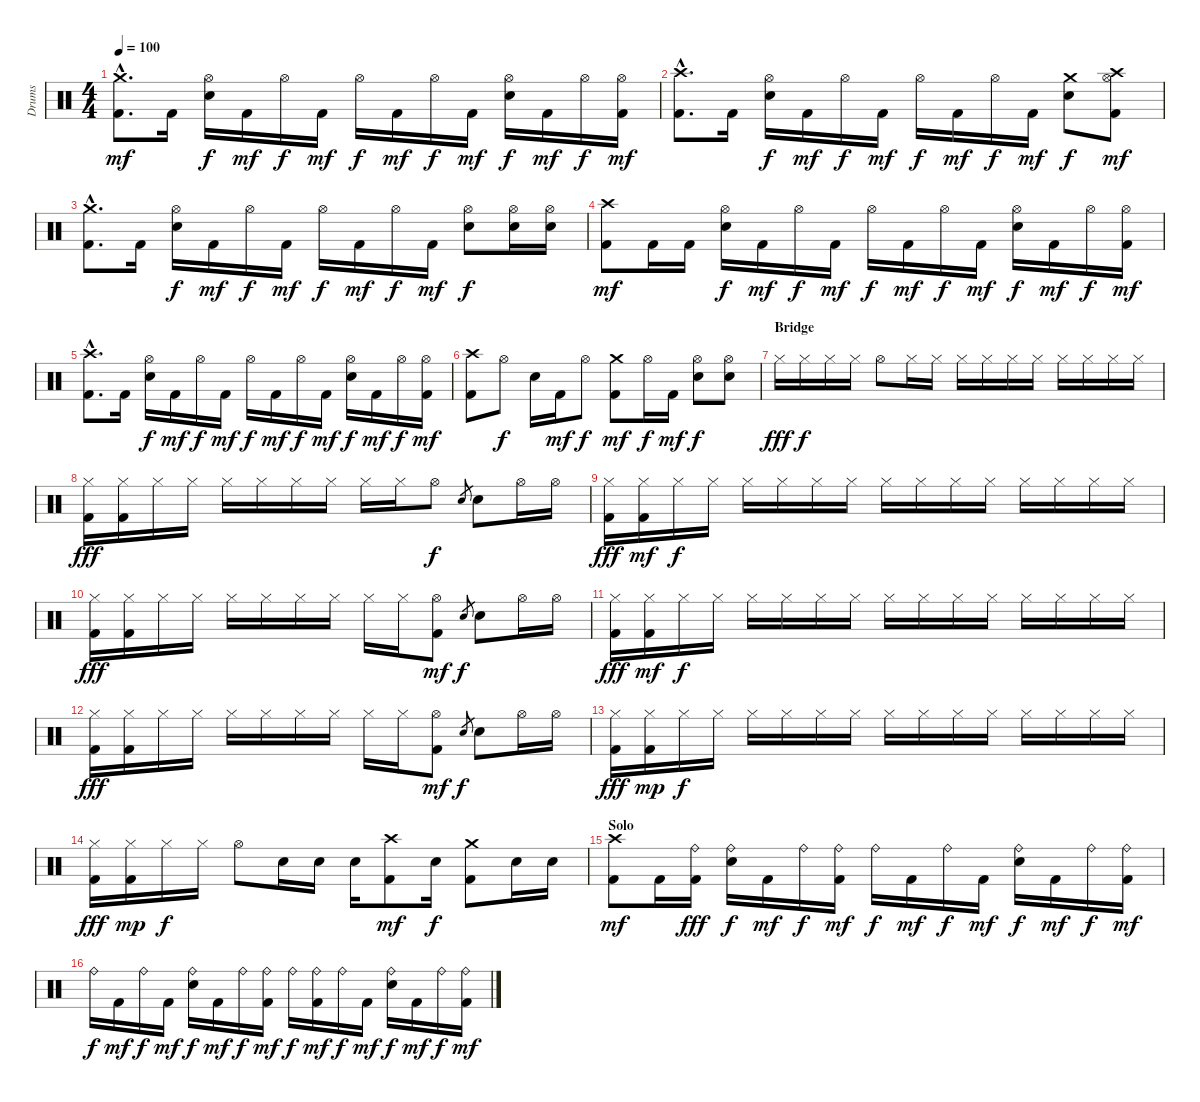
\track ("Drums" "Drums") {instrument percussion}
\staff {score}
\articulation defaults
\ts (4 4)
\tempo 100
\clef neutral
\ks c
("Kick (hit) 2"{hac} "Crash medium (hit)"{hac}).8{d dy mf} "Kick (hit) 2".16 ("Snare (hit) 2" "Hi-Hat (open)").16{dy f} "Kick (hit) 2".16{dy mf} "Hi-Hat (open)".16{dy f} "Kick (hit) 2".16{dy mf} "Hi-Hat (open)".16{dy f} "Kick (hit) 2".16{dy mf} "Hi-Hat (open)".16{dy f} "Kick (hit) 2".16{dy mf} ("Snare (hit) 2" "Hi-Hat (open)").16{dy f} "Kick (hit) 2".16{dy mf} "Hi-Hat (open)".16{dy f} ("Kick (hit) 2" "Hi-Hat (open)").16{dy mf} |
("Kick (hit) 2"{hac} "Crash high (hit)"{hac}).8{d} "Kick (hit) 2".16 ("Snare (hit) 2" "Hi-Hat (open)").16{dy f} "Kick (hit) 2".16{dy mf} "Hi-Hat (open)".16{dy f} "Kick (hit) 2".16{dy mf} "Hi-Hat (open)".16{dy f} "Kick (hit) 2".16{dy mf} "Hi-Hat (open)".16{dy f} "Kick (hit) 2".16{dy mf} ("Snare (hit) 2" "Crash medium (hit)").8{dy f} ("Kick (hit) 2" "Hi-Hat (open)" "Crash high (hit)").8{dy mf} |
("Kick (hit) 2"{hac} "Crash medium (hit)"{hac}).8{d} "Kick (hit) 2".16 ("Snare (hit) 2" "Hi-Hat (open)").16{dy f} "Kick (hit) 2".16{dy mf} "Hi-Hat (open)".16{dy f} "Kick (hit) 2".16{dy mf} "Hi-Hat (open)".16{dy f} "Kick (hit) 2".16{dy mf} "Hi-Hat (open)".16{dy f} "Kick (hit) 2".16{dy mf} ("Snare (hit) 2" "Hi-Hat (open)").8{dy f} ("Snare (hit) 2" "Hi-Hat (open)").16 ("Snare (hit) 2" "Hi-Hat (open)").16 |
("Kick (hit) 2" "Crash high (hit)").8{dy mf} "Kick (hit) 2".16 "Kick (hit) 2".16 ("Snare (hit) 2" "Hi-Hat (open)").16{dy f} "Kick (hit) 2".16{dy mf} "Hi-Hat (open)".16{dy f} "Kick (hit) 2".16{dy mf} "Hi-Hat (open)".16{dy f} "Kick (hit) 2".16{dy mf} "Hi-Hat (open)".16{dy f} "Kick (hit) 2".16{dy mf} ("Snare (hit) 2" "Hi-Hat (open)").16{dy f} "Kick (hit) 2".16{dy mf} "Hi-Hat (open)".16{dy f} ("Kick (hit) 2" "Hi-Hat (open)").16{dy mf} |
("Kick (hit) 2"{hac} "Crash high (hit)"{hac}).8{d} "Kick (hit) 2".16 ("Snare (hit) 2" "Hi-Hat (open)").16{dy f} "Kick (hit) 2".16{dy mf} "Hi-Hat (open)".16{dy f} "Kick (hit) 2".16{dy mf} "Hi-Hat (open)".16{dy f} "Kick (hit) 2".16{dy mf} "Hi-Hat (open)".16{dy f} "Kick (hit) 2".16{dy mf} ("Snare (hit) 2" "Hi-Hat (open)").16{dy f} "Kick (hit) 2".16{dy mf} "Hi-Hat (open)".16{dy f} ("Kick (hit) 2" "Hi-Hat (open)").16{dy mf} |
("Kick (hit) 2" "Crash high (hit)").8 "Hi-Hat (open)".8{dy f} "Snare (hit) 2".16 "Kick (hit) 2".16{dy mf} "Hi-Hat (open)".8{dy f} ("Kick (hit) 2" "Crash medium (hit)").8{dy mf} "Hi-Hat (open)".16{dy f} "Kick (hit) 2".16{dy mf} ("Snare (hit) 2" "Hi-Hat (open)").8{dy f} ("Snare (hit) 2" "Hi-Hat (open)").8 |
\section ("" "Bridge")
"Hi-Hat (closed)".16{dy fff} "Hi-Hat (closed)".16{dy f} "Hi-Hat (closed)".16 "Hi-Hat (closed)".16 "Hi-Hat (open)".8 "Hi-Hat (closed)".16 "Hi-Hat (closed)".16 "Hi-Hat (closed)".16 "Hi-Hat (closed)".16 "Hi-Hat (closed)".16 "Hi-Hat (closed)".16 "Hi-Hat (closed)".16 "Hi-Hat (closed)".16 "Hi-Hat (closed)".16 "Hi-Hat (closed)".16 |
("Kick (hit) 2" "Hi-Hat (closed)").16{dy fff} ("Kick (hit) 2" "Hi-Hat (closed)").16 "Hi-Hat (closed)".16 "Hi-Hat (closed)".16 "Hi-Hat (closed)".16 "Hi-Hat (closed)".16 "Hi-Hat (closed)".16 "Hi-Hat (closed)".16 "Hi-Hat (closed)".16 "Hi-Hat (closed)".16 "Hi-Hat (open)".8{dy f} "Snare (hit) 2".8{gr} "Snare (hit) 2".8 "Hi-Hat (open)".16 "Hi-Hat (open)".16 |
("Kick (hit) 2" "Hi-Hat (closed)").16{dy fff} ("Kick (hit) 2" "Hi-Hat (closed)").16{dy mf} "Hi-Hat (closed)".16{dy f} "Hi-Hat (closed)".16 "Hi-Hat (closed)".16 "Hi-Hat (closed)".16 "Hi-Hat (closed)".16 "Hi-Hat (closed)".16 "Hi-Hat (closed)".16 "Hi-Hat (closed)".16 "Hi-Hat (closed)".16 "Hi-Hat (closed)".16 "Hi-Hat (closed)".16 "Hi-Hat (closed)".16 "Hi-Hat (closed)".16 "Hi-Hat (closed)".16 |
("Kick (hit) 2" "Hi-Hat (closed)").16{dy fff} ("Kick (hit) 2" "Hi-Hat (closed)").16 "Hi-Hat (closed)".16 "Hi-Hat (closed)".16 "Hi-Hat (closed)".16 "Hi-Hat (closed)".16 "Hi-Hat (closed)".16 "Hi-Hat (closed)".16 "Hi-Hat (closed)".16 "Hi-Hat (closed)".16 ("Kick (hit) 2" "Hi-Hat (open)").8{dy mf} "Snare (hit) 2".8{gr dy f} "Snare (hit) 2".8 "Hi-Hat (open)".16 "Hi-Hat (open)".16 |
("Kick (hit) 2" "Hi-Hat (closed)").16{dy fff} ("Kick (hit) 2" "Hi-Hat (closed)").16{dy mf} "Hi-Hat (closed)".16{dy f} "Hi-Hat (closed)".16 "Hi-Hat (closed)".16 "Hi-Hat (closed)".16 "Hi-Hat (closed)".16 "Hi-Hat (closed)".16 "Hi-Hat (closed)".16 "Hi-Hat (closed)".16 "Hi-Hat (closed)".16 "Hi-Hat (closed)".16 "Hi-Hat (closed)".16 "Hi-Hat (closed)".16 "Hi-Hat (closed)".16 "Hi-Hat (closed)".16 |
("Kick (hit) 2" "Hi-Hat (closed)").16{dy fff} ("Kick (hit) 2" "Hi-Hat (closed)").16 "Hi-Hat (closed)".16 "Hi-Hat (closed)".16 "Hi-Hat (closed)".16 "Hi-Hat (closed)".16 "Hi-Hat (closed)".16 "Hi-Hat (closed)".16 "Hi-Hat (closed)".16 "Hi-Hat (closed)".16 ("Kick (hit) 2" "Hi-Hat (open)").8{dy mf} "Snare (hit) 2".8{gr dy f} "Snare (hit) 2".8 "Hi-Hat (open)".16 "Hi-Hat (open)".16 |
("Kick (hit) 2" "Hi-Hat (closed)").16{dy fff} ("Kick (hit) 2" "Hi-Hat (closed)").16{dy mp} "Hi-Hat (closed)".16{dy f} "Hi-Hat (closed)".16 "Hi-Hat (closed)".16 "Hi-Hat (closed)".16 "Hi-Hat (closed)".16 "Hi-Hat (closed)".16 "Hi-Hat (closed)".16 "Hi-Hat (closed)".16 "Hi-Hat (closed)".16 "Hi-Hat (closed)".16 "Hi-Hat (closed)".16 "Hi-Hat (closed)".16 "Hi-Hat (closed)".16 "Hi-Hat (closed)".16 |
("Kick (hit) 2" "Hi-Hat (closed)").16{dy fff} ("Kick (hit) 2" "Hi-Hat (closed)").16{dy mp} "Hi-Hat (closed)".16{dy f} "Hi-Hat (closed)".16 "Hi-Hat (open)".8 "Snare (hit) 2".16 "Snare (hit) 2".16 "Snare (hit) 2".16 ("Kick (hit) 2" "Crash high (hit)").8{dy mf} "Snare (hit) 2".16{dy f} ("Kick (hit) 2" "Crash medium (hit)").8 "Snare (hit) 2".16 "Snare (hit) 2".16 |
\section ("" "Solo")
("Kick (hit) 2" "Crash high (hit)").8{dy mf} "Kick (hit) 2".16 ("Kick (hit) 2" "Ride (bell)").16{dy fff} ("Snare (hit) 2" "Ride (bell)").16{dy f} "Kick (hit) 2".16{dy mf} "Ride (bell)".16{dy f} ("Kick (hit) 2" "Ride (bell)").16{dy mf} "Ride (bell)".16{dy f} "Kick (hit) 2".16{dy mf} "Ride (bell)".16{dy f} "Kick (hit) 2".16{dy mf} ("Snare (hit) 2" "Ride (bell)").16{dy f} "Kick (hit) 2".16{dy mf} "Ride (bell)".16{dy f} ("Kick (hit) 2" "Ride (bell)").16{dy mf} |
"Ride (bell)".16{dy f} "Kick (hit) 2".16{dy mf} "Ride (bell)".16{dy f} "Kick (hit) 2".16{dy mf} ("Snare (hit) 2" "Ride (bell)").16{dy f} "Kick (hit) 2".16{dy mf} "Ride (bell)".16{dy f} ("Kick (hit) 2" "Ride (bell)").16{dy mf} "Ride (bell)".16{dy f} ("Kick (hit) 2" "Ride (bell)").16{dy mf} "Ride (bell)".16{dy f} "Kick (hit) 2".16{dy mf} ("Snare (hit) 2" "Ride (bell)").16{dy f} "Kick (hit) 2".16{dy mf} "Ride (bell)".16{dy f} ("Kick (hit) 2" "Ride (bell)").16{dy mf}
